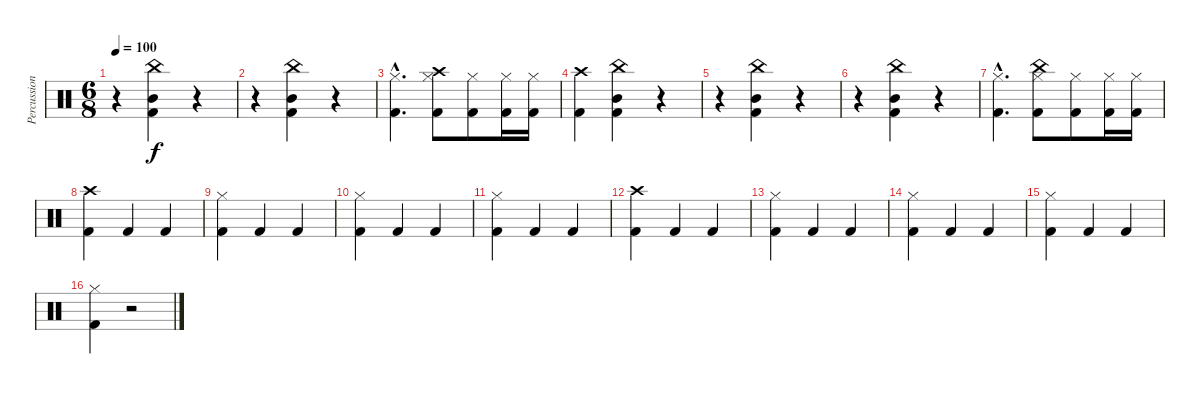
\track ("Percussion" "Percussion") {instrument percussion}
\staff {score}
\articulation defaults
\ts (6 8)
\tempo 100
\clef neutral
\ks c
r.4{dy f} ("Kick (hit) 2" "Mid Tom (hit)" "China (hit)").4 r.4 |
r.4 ("Kick (hit) 2" "Mid Tom (hit)" "China (hit)").4 r.4 |
("Kick (hit) 2"{hac} "Hi-Hat (closed)"{hac}).4{d} ("Kick (hit) 2" "Hi-Hat (closed)" "Crash high (hit)").8 ("Kick (hit) 2" "Hi-Hat (closed)").8 ("Kick (hit) 2" "Hi-Hat (closed)").16 ("Kick (hit) 2" "Hi-Hat (closed)").16 |
("Kick (hit) 2" "Crash high (hit)").4 ("Kick (hit) 2" "Mid Tom (hit)" "China (hit)").4 r.4 |
r.4 ("Kick (hit) 2" "Mid Tom (hit)" "China (hit)").4 r.4 |
r.4 ("Kick (hit) 2" "Mid Tom (hit)" "China (hit)").4 r.4 |
("Kick (hit) 2"{hac} "Hi-Hat (closed)"{hac}).4{d} ("Kick (hit) 2" "Hi-Hat (closed)" "China (hit)").8 ("Kick (hit) 2" "Hi-Hat (closed)").8 ("Kick (hit) 2" "Hi-Hat (closed)").16 ("Kick (hit) 2" "Hi-Hat (closed)").16 |
("Kick (hit) 2" "Crash high (hit)").4 "Kick (hit) 2".4 "Kick (hit) 2".4 |
("Kick (hit) 2" "Hi-Hat (closed)").4 "Kick (hit) 2".4 "Kick (hit) 2".4 |
("Kick (hit) 2" "Hi-Hat (closed)").4 "Kick (hit) 2".4 "Kick (hit) 2".4 |
("Kick (hit) 2" "Hi-Hat (closed)").4 "Kick (hit) 2".4 "Kick (hit) 2".4 |
("Kick (hit) 2" "Crash high (hit)").4 "Kick (hit) 2".4 "Kick (hit) 2".4 |
("Kick (hit) 2" "Hi-Hat (closed)").4 "Kick (hit) 2".4 "Kick (hit) 2".4 |
("Kick (hit) 2" "Hi-Hat (closed)").4 "Kick (hit) 2".4 "Kick (hit) 2".4 |
("Kick (hit) 2" "Hi-Hat (closed)").4 "Kick (hit) 2".4 "Kick (hit) 2".4 |
("Kick (hit) 2" "Hi-Hat (closed)").4 r.2
